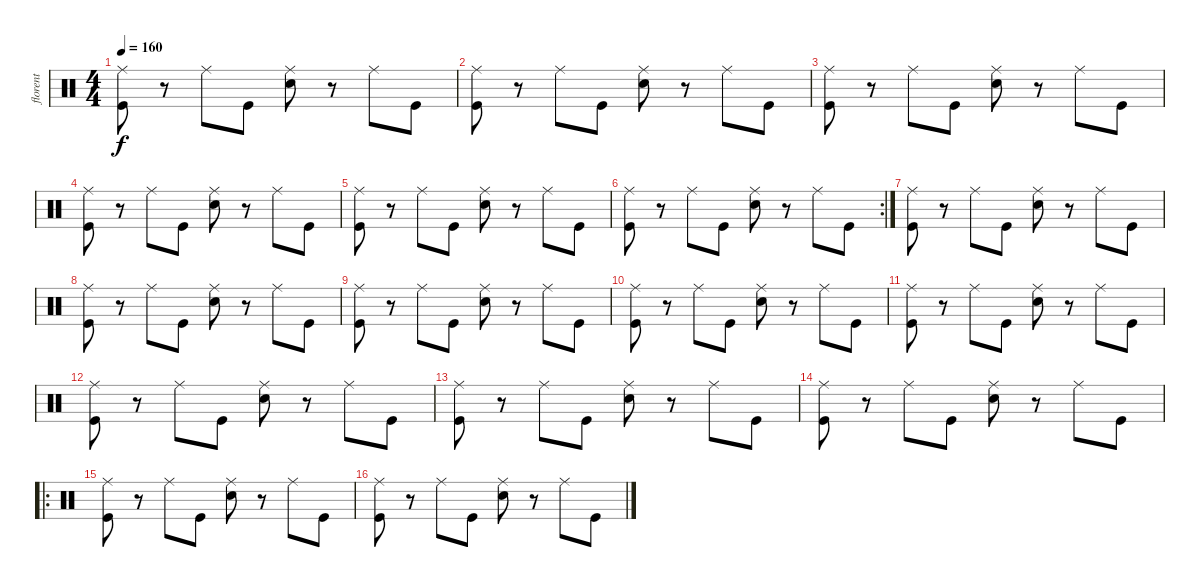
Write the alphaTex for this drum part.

\track ("florent" "florent") {instrument percussion}
\staff {score}
\articulation defaults
\ts (4 4)
\tempo 160
\clef neutral
\ks c
("Ride (middle)" "Kick (hit)").8{dy f} r.8 "Ride (middle)".8 "Kick (hit)".8 ("Ride (middle)" "Snare (hit) 2").8 r.8 "Ride (middle)".8 "Kick (hit)".8 |
("Ride (middle)" "Kick (hit)").8 r.8 "Ride (middle)".8 "Kick (hit)".8 ("Ride (middle)" "Snare (hit) 2").8 r.8 "Ride (middle)".8 "Kick (hit)".8 |
("Ride (middle)" "Kick (hit)").8 r.8 "Ride (middle)".8 "Kick (hit)".8 ("Ride (middle)" "Snare (hit) 2").8 r.8 "Ride (middle)".8 "Kick (hit)".8 |
("Ride (middle)" "Kick (hit)").8 r.8 "Ride (middle)".8 "Kick (hit)".8 ("Ride (middle)" "Snare (hit) 2").8 r.8 "Ride (middle)".8 "Kick (hit)".8 |
("Ride (middle)" "Kick (hit)").8 r.8 "Ride (middle)".8 "Kick (hit)".8 ("Ride (middle)" "Snare (hit) 2").8 r.8 "Ride (middle)".8 "Kick (hit)".8 |
\rc 2
("Ride (middle)" "Kick (hit)").8 r.8 "Ride (middle)".8 "Kick (hit)".8 ("Ride (middle)" "Snare (hit) 2").8 r.8 "Ride (middle)".8 "Kick (hit)".8 |
("Ride (middle)" "Kick (hit)").8 r.8 "Ride (middle)".8 "Kick (hit)".8 ("Ride (middle)" "Snare (hit) 2").8 r.8 "Ride (middle)".8 "Kick (hit)".8 |
("Ride (middle)" "Kick (hit)").8 r.8 "Ride (middle)".8 "Kick (hit)".8 ("Ride (middle)" "Snare (hit) 2").8 r.8 "Ride (middle)".8 "Kick (hit)".8 |
("Ride (middle)" "Kick (hit)").8 r.8 "Ride (middle)".8 "Kick (hit)".8 ("Ride (middle)" "Snare (hit) 2").8 r.8 "Ride (middle)".8 "Kick (hit)".8 |
("Ride (middle)" "Kick (hit)").8 r.8 "Ride (middle)".8 "Kick (hit)".8 ("Ride (middle)" "Snare (hit) 2").8 r.8 "Ride (middle)".8 "Kick (hit)".8 |
("Ride (middle)" "Kick (hit)").8 r.8 "Ride (middle)".8 "Kick (hit)".8 ("Ride (middle)" "Snare (hit) 2").8 r.8 "Ride (middle)".8 "Kick (hit)".8 |
("Ride (middle)" "Kick (hit)").8 r.8 "Ride (middle)".8 "Kick (hit)".8 ("Ride (middle)" "Snare (hit) 2").8 r.8 "Ride (middle)".8 "Kick (hit)".8 |
("Ride (middle)" "Kick (hit)").8 r.8 "Ride (middle)".8 "Kick (hit)".8 ("Ride (middle)" "Snare (hit) 2").8 r.8 "Ride (middle)".8 "Kick (hit)".8 |
("Ride (middle)" "Kick (hit)").8 r.8 "Ride (middle)".8 "Kick (hit)".8 ("Ride (middle)" "Snare (hit) 2").8 r.8 "Ride (middle)".8 "Kick (hit)".8 |
\ro
("Ride (middle)" "Kick (hit)").8 r.8 "Ride (middle)".8 "Kick (hit)".8 ("Ride (middle)" "Snare (hit) 2").8 r.8 "Ride (middle)".8 "Kick (hit)".8 |
("Ride (middle)" "Kick (hit)").8 r.8 "Ride (middle)".8 "Kick (hit)".8 ("Ride (middle)" "Snare (hit) 2").8 r.8 "Ride (middle)".8 "Kick (hit)".8
